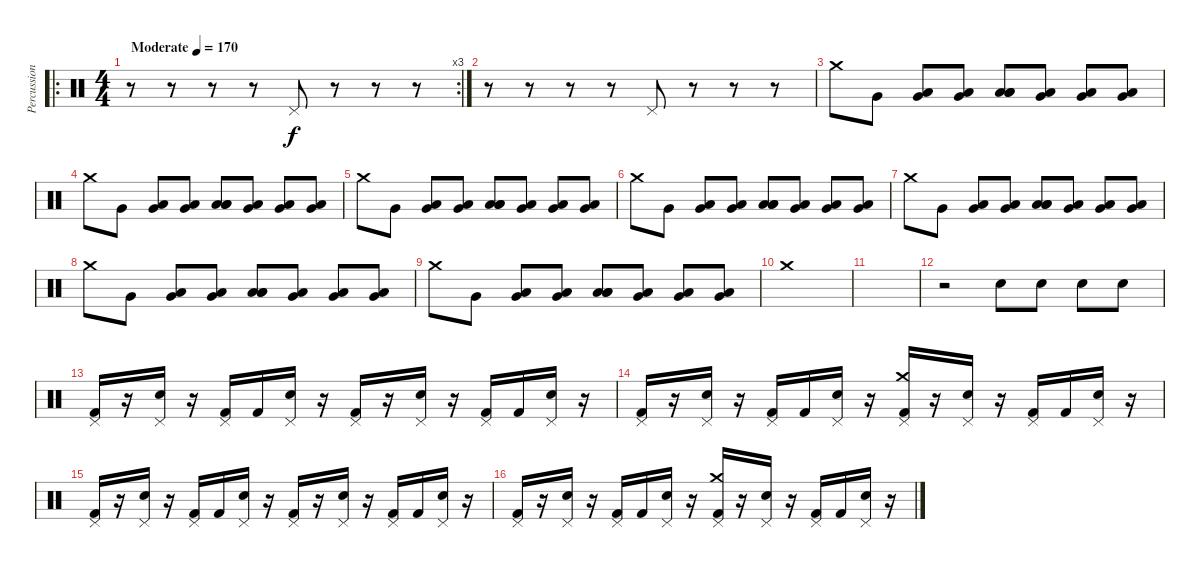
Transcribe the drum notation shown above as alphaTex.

\track ("Percussion" "Percussion") {instrument percussion}
\staff {score}
\articulation defaults
\ro
\rc 3
\ts (4 4)
\tempo (170 "Moderate")
\clef neutral
\ks c
r.8{dy f} r.8 r.8 r.8 "Pedal Hi-Hat (hit)".8 r.8 r.8 r.8 |
r.8 r.8 r.8 r.8 "Pedal Hi-Hat (hit)".8 r.8 r.8 r.8 |
"Crash medium (hit)".8 "Very Low Tom (hit)".8 ("Low Floor Tom (hit)" "Very Low Tom (hit)").8 ("Low Floor Tom (hit)" "Very Low Tom (hit)").8 ("Low Floor Tom (hit)" "Low Floor Tom (hit)" "Low Floor Tom (hit)").8 ("Low Floor Tom (hit)" "Very Low Tom (hit)").8 ("Low Floor Tom (hit)" "Very Low Tom (hit)").8 ("Low Floor Tom (hit)" "Very Low Tom (hit)").8 |
"Crash medium (hit)".8 "Very Low Tom (hit)".8 ("Low Floor Tom (hit)" "Very Low Tom (hit)").8 ("Low Floor Tom (hit)" "Very Low Tom (hit)").8 ("Low Floor Tom (hit)" "Low Floor Tom (hit)" "Low Floor Tom (hit)").8 ("Low Floor Tom (hit)" "Very Low Tom (hit)").8 ("Low Floor Tom (hit)" "Very Low Tom (hit)").8 ("Low Floor Tom (hit)" "Very Low Tom (hit)").8 |
"Crash medium (hit)".8 "Very Low Tom (hit)".8 ("Low Floor Tom (hit)" "Very Low Tom (hit)").8 ("Low Floor Tom (hit)" "Very Low Tom (hit)").8 ("Low Floor Tom (hit)" "Low Floor Tom (hit)" "Low Floor Tom (hit)").8 ("Low Floor Tom (hit)" "Very Low Tom (hit)").8 ("Low Floor Tom (hit)" "Very Low Tom (hit)").8 ("Low Floor Tom (hit)" "Very Low Tom (hit)").8 |
"Crash medium (hit)".8 "Very Low Tom (hit)".8 ("Low Floor Tom (hit)" "Very Low Tom (hit)").8 ("Low Floor Tom (hit)" "Very Low Tom (hit)").8 ("Low Floor Tom (hit)" "Low Floor Tom (hit)" "Low Floor Tom (hit)").8 ("Low Floor Tom (hit)" "Very Low Tom (hit)").8 ("Low Floor Tom (hit)" "Very Low Tom (hit)").8 ("Low Floor Tom (hit)" "Very Low Tom (hit)").8 |
"Crash medium (hit)".8 "Very Low Tom (hit)".8 ("Low Floor Tom (hit)" "Very Low Tom (hit)").8 ("Low Floor Tom (hit)" "Very Low Tom (hit)").8 ("Low Floor Tom (hit)" "Low Floor Tom (hit)" "Low Floor Tom (hit)").8 ("Low Floor Tom (hit)" "Very Low Tom (hit)").8 ("Low Floor Tom (hit)" "Very Low Tom (hit)").8 ("Low Floor Tom (hit)" "Very Low Tom (hit)").8 |
"Crash medium (hit)".8 "Very Low Tom (hit)".8 ("Low Floor Tom (hit)" "Very Low Tom (hit)").8 ("Low Floor Tom (hit)" "Very Low Tom (hit)").8 ("Low Floor Tom (hit)" "Low Floor Tom (hit)" "Low Floor Tom (hit)").8 ("Low Floor Tom (hit)" "Very Low Tom (hit)").8 ("Low Floor Tom (hit)" "Very Low Tom (hit)").8 ("Low Floor Tom (hit)" "Very Low Tom (hit)").8 |
"Crash medium (hit)".8 "Very Low Tom (hit)".8 ("Low Floor Tom (hit)" "Very Low Tom (hit)").8 ("Low Floor Tom (hit)" "Very Low Tom (hit)").8 ("Low Floor Tom (hit)" "Low Floor Tom (hit)" "Low Floor Tom (hit)").8 ("Low Floor Tom (hit)" "Very Low Tom (hit)").8 ("Low Floor Tom (hit)" "Very Low Tom (hit)").8 ("Low Floor Tom (hit)" "Very Low Tom (hit)").8 |
"Crash medium (hit)".1 |
|
r.2 "Electric Snare (hit)".8 "Electric Snare (hit)".8 "Electric Snare (hit)".8 "Electric Snare (hit)".8 |
("Kick (hit) 2" "Pedal Hi-Hat (hit)").16 r.16 ("Electric Snare (hit)" "Pedal Hi-Hat (hit)").16 r.16 ("Kick (hit) 2" "Pedal Hi-Hat (hit)").16 "Kick (hit) 2".16 ("Electric Snare (hit)" "Pedal Hi-Hat (hit)").16 r.16 ("Kick (hit) 2" "Pedal Hi-Hat (hit)").16 r.16 ("Electric Snare (hit)" "Pedal Hi-Hat (hit)").16 r.16 ("Kick (hit) 2" "Pedal Hi-Hat (hit)").16 "Kick (hit) 2".16 ("Electric Snare (hit)" "Pedal Hi-Hat (hit)").16 r.16 |
("Kick (hit) 2" "Pedal Hi-Hat (hit)").16 r.16 ("Electric Snare (hit)" "Pedal Hi-Hat (hit)").16 r.16 ("Kick (hit) 2" "Pedal Hi-Hat (hit)").16 "Kick (hit) 2".16 ("Electric Snare (hit)" "Pedal Hi-Hat (hit)").16 r.16 ("Kick (hit) 2" "Pedal Hi-Hat (hit)" "Crash medium (hit)").16 r.16 ("Electric Snare (hit)" "Pedal Hi-Hat (hit)").16 r.16 ("Kick (hit) 2" "Pedal Hi-Hat (hit)").16 "Kick (hit) 2".16 ("Electric Snare (hit)" "Pedal Hi-Hat (hit)").16 r.16 |
("Kick (hit) 2" "Pedal Hi-Hat (hit)").16 r.16 ("Electric Snare (hit)" "Pedal Hi-Hat (hit)").16 r.16 ("Kick (hit) 2" "Pedal Hi-Hat (hit)").16 "Kick (hit) 2".16 ("Electric Snare (hit)" "Pedal Hi-Hat (hit)").16 r.16 ("Kick (hit) 2" "Pedal Hi-Hat (hit)").16 r.16 ("Electric Snare (hit)" "Pedal Hi-Hat (hit)").16 r.16 ("Kick (hit) 2" "Pedal Hi-Hat (hit)").16 "Kick (hit) 2".16 ("Electric Snare (hit)" "Pedal Hi-Hat (hit)").16 r.16 |
("Kick (hit) 2" "Pedal Hi-Hat (hit)").16 r.16 ("Electric Snare (hit)" "Pedal Hi-Hat (hit)").16 r.16 ("Kick (hit) 2" "Pedal Hi-Hat (hit)").16 "Kick (hit) 2".16 ("Electric Snare (hit)" "Pedal Hi-Hat (hit)").16 r.16 ("Kick (hit) 2" "Pedal Hi-Hat (hit)" "Crash medium (hit)").16 r.16 ("Electric Snare (hit)" "Pedal Hi-Hat (hit)").16 r.16 ("Kick (hit) 2" "Pedal Hi-Hat (hit)").16 "Kick (hit) 2".16 ("Electric Snare (hit)" "Pedal Hi-Hat (hit)").16 r.16
